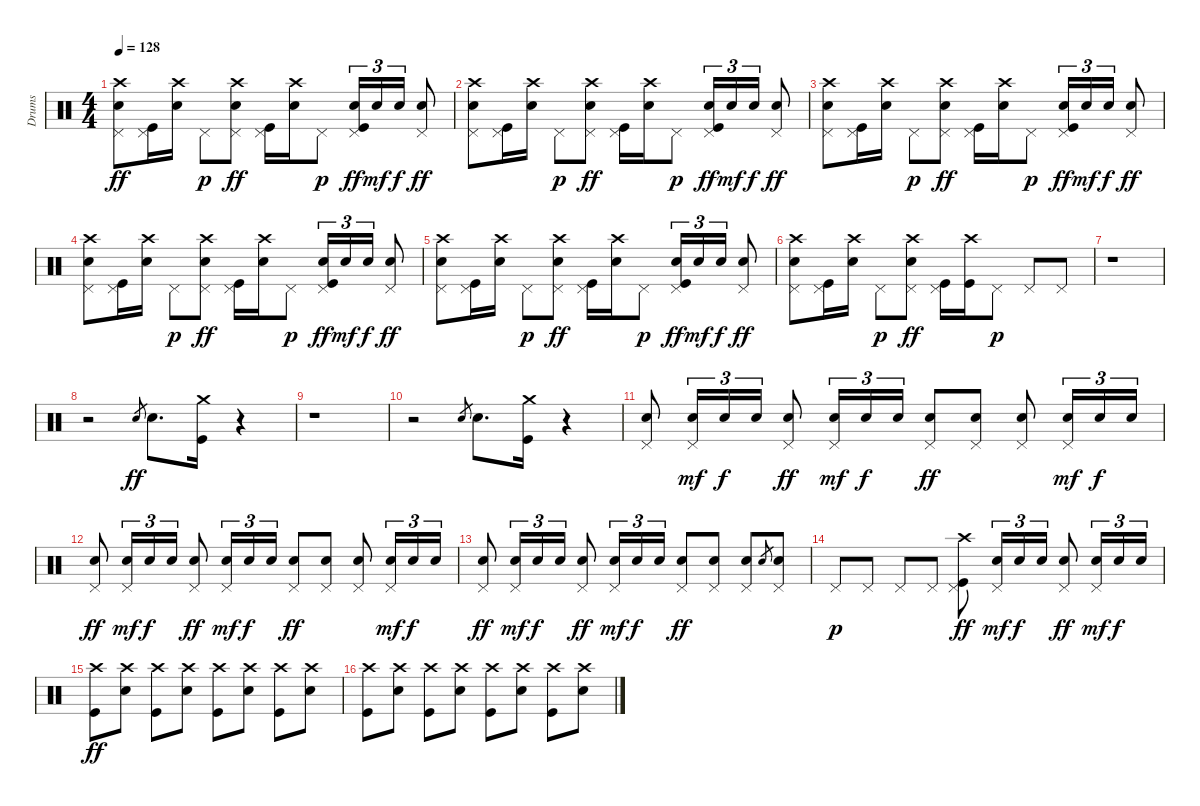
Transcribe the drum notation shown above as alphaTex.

\track ("Drums" "Drums") {instrument percussion}
\staff {score}
\articulation defaults
\ts (4 4)
\tempo 128
\clef neutral
\ks c
("Crash high (hit)" "Pedal Hi-Hat (hit)" "Snare (hit) 2").8{dy ff} ("Pedal Hi-Hat (hit)" "Kick (hit)").16 ("Crash high (hit)" "Snare (hit) 2").16 "Pedal Hi-Hat (hit)".8{dy p} ("Crash high (hit)" "Pedal Hi-Hat (hit)" "Snare (hit) 2").8{dy ff} ("Pedal Hi-Hat (hit)" "Kick (hit)").16 ("Crash high (hit)" "Snare (hit) 2").16 "Pedal Hi-Hat (hit)".8{dy p} ("Pedal Hi-Hat (hit)" "Snare (hit) 2" "Kick (hit)").16{tu (3 2) dy ff} "Snare (hit) 2".16{tu (3 2) dy mf} "Snare (hit) 2".16{tu (3 2) dy f} ("Pedal Hi-Hat (hit)" "Snare (hit) 2").8{dy ff} |
("Crash high (hit)" "Pedal Hi-Hat (hit)" "Snare (hit) 2").8 ("Pedal Hi-Hat (hit)" "Kick (hit)").16 ("Crash high (hit)" "Snare (hit) 2").16 "Pedal Hi-Hat (hit)".8{dy p} ("Crash high (hit)" "Pedal Hi-Hat (hit)" "Snare (hit) 2").8{dy ff} ("Pedal Hi-Hat (hit)" "Kick (hit)").16 ("Crash high (hit)" "Snare (hit) 2").16 "Pedal Hi-Hat (hit)".8{dy p} ("Pedal Hi-Hat (hit)" "Snare (hit) 2" "Kick (hit)").16{tu (3 2) dy ff} "Snare (hit) 2".16{tu (3 2) dy mf} "Snare (hit) 2".16{tu (3 2) dy f} ("Pedal Hi-Hat (hit)" "Snare (hit) 2").8{dy ff} |
("Crash high (hit)" "Pedal Hi-Hat (hit)" "Snare (hit) 2").8 ("Pedal Hi-Hat (hit)" "Kick (hit)").16 ("Crash high (hit)" "Snare (hit) 2").16 "Pedal Hi-Hat (hit)".8{dy p} ("Crash high (hit)" "Pedal Hi-Hat (hit)" "Snare (hit) 2").8{dy ff} ("Pedal Hi-Hat (hit)" "Kick (hit)").16 ("Crash high (hit)" "Snare (hit) 2").16 "Pedal Hi-Hat (hit)".8{dy p} ("Pedal Hi-Hat (hit)" "Snare (hit) 2" "Kick (hit)").16{tu (3 2) dy ff} "Snare (hit) 2".16{tu (3 2) dy mf} "Snare (hit) 2".16{tu (3 2) dy f} ("Pedal Hi-Hat (hit)" "Snare (hit) 2").8{dy ff} |
("Crash high (hit)" "Pedal Hi-Hat (hit)" "Snare (hit) 2").8 ("Pedal Hi-Hat (hit)" "Kick (hit)").16 ("Crash high (hit)" "Snare (hit) 2").16 "Pedal Hi-Hat (hit)".8{dy p} ("Crash high (hit)" "Pedal Hi-Hat (hit)" "Snare (hit) 2").8{dy ff} ("Pedal Hi-Hat (hit)" "Kick (hit)").16 ("Crash high (hit)" "Snare (hit) 2").16 "Pedal Hi-Hat (hit)".8{dy p} ("Pedal Hi-Hat (hit)" "Snare (hit) 2" "Kick (hit)").16{tu (3 2) dy ff} "Snare (hit) 2".16{tu (3 2) dy mf} "Snare (hit) 2".16{tu (3 2) dy f} ("Pedal Hi-Hat (hit)" "Snare (hit) 2").8{dy ff} |
("Crash high (hit)" "Pedal Hi-Hat (hit)" "Snare (hit) 2").8 ("Pedal Hi-Hat (hit)" "Kick (hit)").16 ("Crash high (hit)" "Snare (hit) 2").16 "Pedal Hi-Hat (hit)".8{dy p} ("Crash high (hit)" "Pedal Hi-Hat (hit)" "Snare (hit) 2").8{dy ff} ("Pedal Hi-Hat (hit)" "Kick (hit)").16 ("Crash high (hit)" "Snare (hit) 2").16 "Pedal Hi-Hat (hit)".8{dy p} ("Pedal Hi-Hat (hit)" "Snare (hit) 2" "Kick (hit)").16{tu (3 2) dy ff} "Snare (hit) 2".16{tu (3 2) dy mf} "Snare (hit) 2".16{tu (3 2) dy f} ("Pedal Hi-Hat (hit)" "Snare (hit) 2").8{dy ff} |
("Crash high (hit)" "Pedal Hi-Hat (hit)" "Snare (hit) 2").8 ("Pedal Hi-Hat (hit)" "Kick (hit)").16 ("Crash high (hit)" "Snare (hit) 2").16 "Pedal Hi-Hat (hit)".8{dy p} ("Crash high (hit)" "Pedal Hi-Hat (hit)" "Snare (hit) 2").8{dy ff} ("Pedal Hi-Hat (hit)" "Kick (hit)").16 ("Crash high (hit)" "Kick (hit)").16 "Pedal Hi-Hat (hit)".8{dy p} "Pedal Hi-Hat (hit)".8 "Pedal Hi-Hat (hit)".8 |
r.1 |
r.2 "Snare (hit) 2".8{gr dy ff} "Snare (hit) 2".8{d} ("Crash medium (hit)" "Kick (hit)").16 r.4 |
r.1 |
r.2 "Snare (hit) 2".8{gr} "Snare (hit) 2".8{d} ("Crash medium (hit)" "Kick (hit)").16 r.4 |
("Pedal Hi-Hat (hit)" "Snare (hit) 2").8 ("Pedal Hi-Hat (hit)" "Snare (hit) 2").16{tu (3 2) dy mf} "Snare (hit) 2".16{tu (3 2) dy f} "Snare (hit) 2".16{tu (3 2)} ("Pedal Hi-Hat (hit)" "Snare (hit) 2").8{dy ff} ("Pedal Hi-Hat (hit)" "Snare (hit) 2").16{tu (3 2) dy mf} "Snare (hit) 2".16{tu (3 2) dy f} "Snare (hit) 2".16{tu (3 2)} ("Pedal Hi-Hat (hit)" "Snare (hit) 2").8{dy ff} ("Pedal Hi-Hat (hit)" "Snare (hit) 2").8 ("Pedal Hi-Hat (hit)" "Snare (hit) 2").8 ("Pedal Hi-Hat (hit)" "Snare (hit) 2").16{tu (3 2) dy mf} "Snare (hit) 2".16{tu (3 2) dy f} "Snare (hit) 2".16{tu (3 2)} |
("Pedal Hi-Hat (hit)" "Snare (hit) 2").8{dy ff} ("Pedal Hi-Hat (hit)" "Snare (hit) 2").16{tu (3 2) dy mf} "Snare (hit) 2".16{tu (3 2) dy f} "Snare (hit) 2".16{tu (3 2)} ("Pedal Hi-Hat (hit)" "Snare (hit) 2").8{dy ff} ("Pedal Hi-Hat (hit)" "Snare (hit) 2").16{tu (3 2) dy mf} "Snare (hit) 2".16{tu (3 2) dy f} "Snare (hit) 2".16{tu (3 2)} ("Pedal Hi-Hat (hit)" "Snare (hit) 2").8{dy ff} ("Pedal Hi-Hat (hit)" "Snare (hit) 2").8 ("Pedal Hi-Hat (hit)" "Snare (hit) 2").8 ("Pedal Hi-Hat (hit)" "Snare (hit) 2").16{tu (3 2) dy mf} "Snare (hit) 2".16{tu (3 2) dy f} "Snare (hit) 2".16{tu (3 2)} |
("Pedal Hi-Hat (hit)" "Snare (hit) 2").8{dy ff} ("Pedal Hi-Hat (hit)" "Snare (hit) 2").16{tu (3 2) dy mf} "Snare (hit) 2".16{tu (3 2) dy f} "Snare (hit) 2".16{tu (3 2)} ("Pedal Hi-Hat (hit)" "Snare (hit) 2").8{dy ff} ("Pedal Hi-Hat (hit)" "Snare (hit) 2").16{tu (3 2) dy mf} "Snare (hit) 2".16{tu (3 2) dy f} "Snare (hit) 2".16{tu (3 2)} ("Pedal Hi-Hat (hit)" "Snare (hit) 2").8{dy ff} ("Pedal Hi-Hat (hit)" "Snare (hit) 2").8 ("Pedal Hi-Hat (hit)" "Snare (hit) 2").8 "Snare (hit) 2".8{gr} ("Pedal Hi-Hat (hit)" "Snare (hit) 2").8 |
"Pedal Hi-Hat (hit)".8{dy p} "Pedal Hi-Hat (hit)".8 "Pedal Hi-Hat (hit)".8 "Pedal Hi-Hat (hit)".8 ("Crash high (hit)" "Pedal Hi-Hat (hit)" "Kick (hit)").8{dy ff} ("Pedal Hi-Hat (hit)" "Snare (hit) 2").16{tu (3 2) dy mf} "Snare (hit) 2".16{tu (3 2) dy f} "Snare (hit) 2".16{tu (3 2)} ("Pedal Hi-Hat (hit)" "Snare (hit) 2").8{dy ff} ("Pedal Hi-Hat (hit)" "Snare (hit) 2").16{tu (3 2) dy mf} "Snare (hit) 2".16{tu (3 2) dy f} "Snare (hit) 2".16{tu (3 2)} |
("Crash high (hit)" "Kick (hit)").8{dy ff} ("Crash high (hit)" "Snare (hit) 2").8 ("Crash high (hit)" "Kick (hit)").8 ("Crash high (hit)" "Snare (hit) 2").8 ("Crash high (hit)" "Kick (hit)").8 ("Crash high (hit)" "Snare (hit) 2").8 ("Crash high (hit)" "Kick (hit)").8 ("Crash high (hit)" "Snare (hit) 2").8 |
("Crash high (hit)" "Kick (hit)").8 ("Crash high (hit)" "Snare (hit) 2").8 ("Crash high (hit)" "Kick (hit)").8 ("Crash high (hit)" "Snare (hit) 2").8 ("Crash high (hit)" "Kick (hit)").8 ("Crash high (hit)" "Snare (hit) 2").8 ("Crash high (hit)" "Kick (hit)").8 ("Crash high (hit)" "Snare (hit) 2").8
